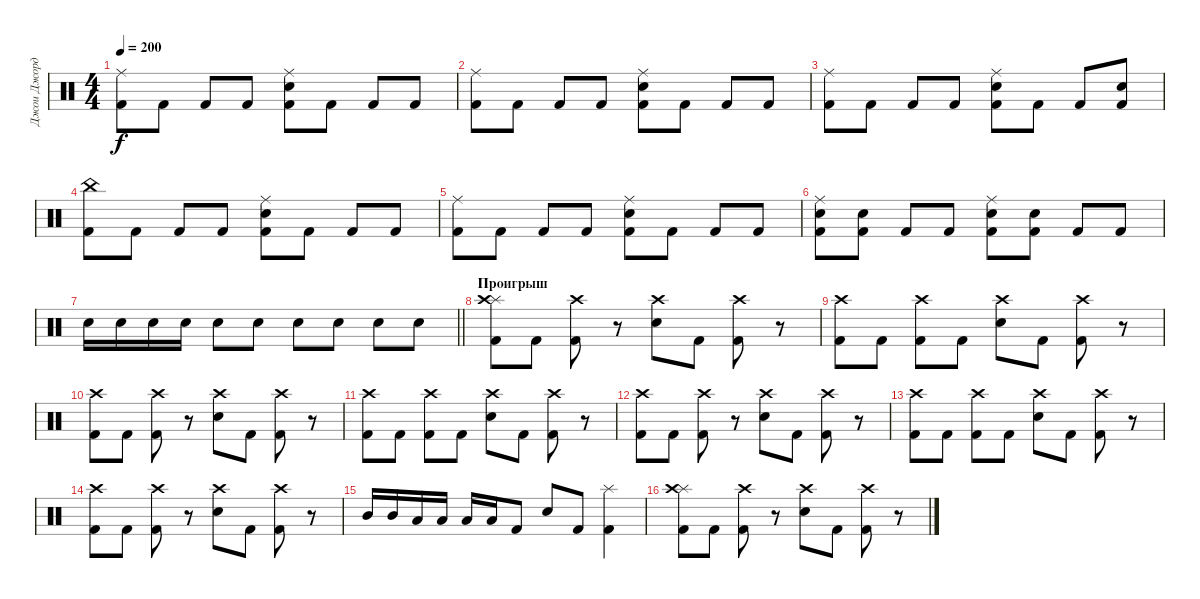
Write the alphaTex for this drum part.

\track ("Джои Джордисон" "Джои Джорд") {instrument percussion}
\staff {score}
\articulation defaults
\ts (4 4)
\tempo 200
\clef neutral
\ks c
("Ride (middle)" "Kick (hit) 2").8{dy f} "Kick (hit) 2".8 "Kick (hit) 2".8 "Kick (hit) 2".8 ("Ride (middle)" "Electric Snare (hit)" "Kick (hit) 2").8 "Kick (hit) 2".8 "Kick (hit) 2".8 "Kick (hit) 2".8 |
("Ride (middle)" "Kick (hit) 2").8 "Kick (hit) 2".8 "Kick (hit) 2".8 "Kick (hit) 2".8 ("Ride (middle)" "Electric Snare (hit)" "Kick (hit) 2").8 "Kick (hit) 2".8 "Kick (hit) 2".8 "Kick (hit) 2".8 |
("Ride (middle)" "Kick (hit) 2").8 "Kick (hit) 2".8 "Kick (hit) 2".8 "Kick (hit) 2".8 ("Ride (middle)" "Electric Snare (hit)" "Kick (hit) 2").8 "Kick (hit) 2".8 "Kick (hit) 2".8 ("Electric Snare (hit)" "Kick (hit) 2").8 |
("China (hit)" "Kick (hit) 2").8 "Kick (hit) 2".8 "Kick (hit) 2".8 "Kick (hit) 2".8 ("Ride (middle)" "Electric Snare (hit)" "Kick (hit) 2").8 "Kick (hit) 2".8 "Kick (hit) 2".8 "Kick (hit) 2".8 |
("Ride (middle)" "Kick (hit) 2").8 "Kick (hit) 2".8 "Kick (hit) 2".8 "Kick (hit) 2".8 ("Ride (middle)" "Electric Snare (hit)" "Kick (hit) 2").8 "Kick (hit) 2".8 "Kick (hit) 2".8 "Kick (hit) 2".8 |
("Ride (middle)" "Electric Snare (hit)" "Kick (hit) 2").8 ("Electric Snare (hit)" "Kick (hit) 2").8 "Kick (hit) 2".8 "Kick (hit) 2".8 ("Ride (middle)" "Electric Snare (hit)" "Kick (hit) 2").8 ("Electric Snare (hit)" "Kick (hit) 2").8 "Kick (hit) 2".8 "Kick (hit) 2".8 |
\barLineRight lightlight "Electric Snare (hit)".16 "Electric Snare (hit)".16 "Electric Snare (hit)".16 "Electric Snare (hit)".16 "Electric Snare (hit)".8 "Electric Snare (hit)".8 "Electric Snare (hit)".8 "Electric Snare (hit)".8 "Electric Snare (hit)".8 "Electric Snare (hit)".8
|
\section ("" "Проигрыш")
("Splash (hit)" "Crash high (hit)" "Kick (hit) 2").8 "Kick (hit) 2".8 ("Crash high (hit)" "Kick (hit) 2").8 r.8 ("Crash high (hit)" "Electric Snare (hit)").8 "Kick (hit) 2".8 ("Crash high (hit)" "Kick (hit) 2").8 r.8 |
("Crash high (hit)" "Kick (hit) 2").8 "Kick (hit) 2".8 ("Crash high (hit)" "Kick (hit) 2").8 "Kick (hit) 2".8 ("Crash high (hit)" "Electric Snare (hit)").8 "Kick (hit) 2".8 ("Crash high (hit)" "Kick (hit) 2").8 r.8 |
("Crash high (hit)" "Kick (hit) 2").8 "Kick (hit) 2".8 ("Crash high (hit)" "Kick (hit) 2").8 r.8 ("Crash high (hit)" "Electric Snare (hit)").8 "Kick (hit) 2".8 ("Crash high (hit)" "Kick (hit) 2").8 r.8 |
("Crash high (hit)" "Kick (hit) 2").8 "Kick (hit) 2".8 ("Crash high (hit)" "Kick (hit) 2").8 "Kick (hit) 2".8 ("Crash high (hit)" "Electric Snare (hit)").8 "Kick (hit) 2".8 ("Crash high (hit)" "Kick (hit) 2").8 r.8 |
("Crash high (hit)" "Kick (hit) 2").8 "Kick (hit) 2".8 ("Crash high (hit)" "Kick (hit) 2").8 r.8 ("Crash high (hit)" "Electric Snare (hit)").8 "Kick (hit) 2".8 ("Crash high (hit)" "Kick (hit) 2").8 r.8 |
("Crash high (hit)" "Kick (hit) 2").8 "Kick (hit) 2".8 ("Crash high (hit)" "Kick (hit) 2").8 "Kick (hit) 2".8 ("Crash high (hit)" "Electric Snare (hit)").8 "Kick (hit) 2".8 ("Crash high (hit)" "Kick (hit) 2").8 r.8 |
("Crash high (hit)" "Kick (hit) 2").8 "Kick (hit) 2".8 ("Crash high (hit)" "Kick (hit) 2").8 r.8 ("Crash high (hit)" "Electric Snare (hit)").8 "Kick (hit) 2".8 ("Crash high (hit)" "Kick (hit) 2").8 r.8 |
"Mid Tom (hit)".16 "Mid Tom (hit)".16 "Low Tom (hit)".16 "Low Tom (hit)".16 "Low Floor Tom (hit)".16 "Low Floor Tom (hit)".16 "Kick (hit) 2".8 "Electric Snare (hit)".8 "Kick (hit) 2".8 ("Splash (hit)" "Kick (hit) 2").4 |
("Splash (hit)" "Crash high (hit)" "Kick (hit) 2").8 "Kick (hit) 2".8 ("Crash high (hit)" "Kick (hit) 2").8 r.8 ("Crash high (hit)" "Electric Snare (hit)").8 "Kick (hit) 2".8 ("Crash high (hit)" "Kick (hit) 2").8 r.8
